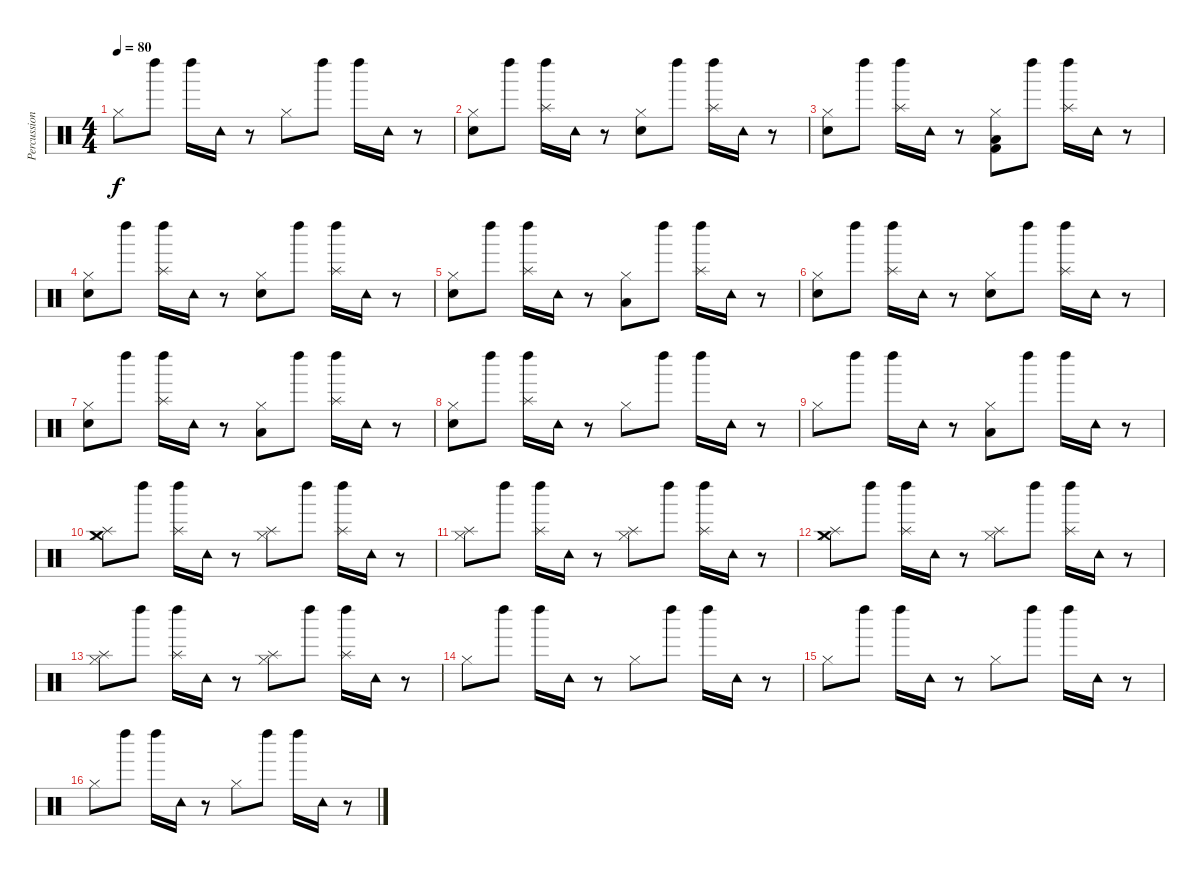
\track ("Percussion" "Percussion") {instrument percussion}
\staff {score}
\articulation defaults
\ts (4 4)
\tempo 80
\clef neutral
\ks c "Hi-Hat (closed)".8{dy f} "Left Maraca (hit)".8 "Left Maraca (hit)".16 "Tambourine (hit)".16
r.8 "Hi-Hat (closed)".8 "Left Maraca (hit)".8 "Left Maraca (hit)".16 "Tambourine (hit)".16 r.8 |
("Hi-Hat (closed)" "Hand Clap (hit)").8 "Left Maraca (hit)".8 ("Left Maraca (hit)" "Splash (hit)").16 "Tambourine (hit)".16 r.8 ("Hi-Hat (closed)" "Hand Clap (hit)").8 "Left Maraca (hit)".8 ("Left Maraca (hit)" "Splash (hit)").16 "Tambourine (hit)".16 r.8 |
("Hi-Hat (closed)" "Hand Clap (hit)").8 "Left Maraca (hit)".8 ("Left Maraca (hit)" "Splash (hit)").16 "Tambourine (hit)".16 r.8 ("Hi-Hat (closed)" "Low Tom (hit)" "Kick (hit) 2").8 "Left Maraca (hit)".8 ("Left Maraca (hit)" "Splash (hit)").16 "Tambourine (hit)".16 r.8 |
("Hi-Hat (closed)" "Hand Clap (hit)").8 "Left Maraca (hit)".8 ("Left Maraca (hit)" "Splash (hit)").16 "Tambourine (hit)".16 r.8 ("Hi-Hat (closed)" "Hand Clap (hit)").8 "Left Maraca (hit)".8 ("Left Maraca (hit)" "Splash (hit)").16 "Tambourine (hit)".16 r.8 |
("Hi-Hat (closed)" "Hand Clap (hit)").8 "Left Maraca (hit)".8 ("Left Maraca (hit)" "Splash (hit)").16 "Tambourine (hit)".16 r.8 ("Hi-Hat (closed)" "Low Tom (hit)").8 "Left Maraca (hit)".8 ("Left Maraca (hit)" "Splash (hit)").16 "Tambourine (hit)".16 r.8 |
("Hi-Hat (closed)" "Hand Clap (hit)").8 "Left Maraca (hit)".8 ("Left Maraca (hit)" "Splash (hit)").16 "Tambourine (hit)".16 r.8 ("Hi-Hat (closed)" "Hand Clap (hit)").8 "Left Maraca (hit)".8 ("Left Maraca (hit)" "Splash (hit)").16 "Tambourine (hit)".16 r.8 |
("Hi-Hat (closed)" "Hand Clap (hit)").8 "Left Maraca (hit)".8 ("Left Maraca (hit)" "Splash (hit)").16 "Tambourine (hit)".16 r.8 ("Hi-Hat (closed)" "Low Tom (hit)").8 "Left Maraca (hit)".8 ("Left Maraca (hit)" "Splash (hit)").16 "Tambourine (hit)".16 r.8 |
("Hi-Hat (closed)" "Hand Clap (hit)").8 "Left Maraca (hit)".8 ("Left Maraca (hit)" "Splash (hit)").16 "Tambourine (hit)".16 r.8 "Hi-Hat (closed)".8 "Left Maraca (hit)".8 "Left Maraca (hit)".16 "Tambourine (hit)".16 r.8 |
"Hi-Hat (closed)".8 "Left Maraca (hit)".8 "Left Maraca (hit)".16 "Tambourine (hit)".16 r.8 ("Hi-Hat (closed)" "Low Tom (hit)").8 "Left Maraca (hit)".8 "Left Maraca (hit)".16 "Tambourine (hit)".16 r.8 |
("Hi-Hat (closed)" "Splash (hit)" "Crash medium (hit)").8 "Left Maraca (hit)".8 ("Left Maraca (hit)" "Splash (hit)").16 "Tambourine (hit)".16 r.8 ("Hi-Hat (closed)" "Splash (hit)").8 "Left Maraca (hit)".8 ("Left Maraca (hit)" "Splash (hit)").16 "Tambourine (hit)".16 r.8 |
("Hi-Hat (closed)" "Splash (hit)").8 "Left Maraca (hit)".8 ("Left Maraca (hit)" "Splash (hit)").16 "Tambourine (hit)".16 r.8 ("Hi-Hat (closed)" "Splash (hit)").8 "Left Maraca (hit)".8 ("Left Maraca (hit)" "Splash (hit)").16 "Tambourine (hit)".16 r.8 |
("Hi-Hat (closed)" "Splash (hit)" "Crash medium (hit)").8 "Left Maraca (hit)".8 ("Left Maraca (hit)" "Splash (hit)").16 "Tambourine (hit)".16 r.8 ("Hi-Hat (closed)" "Splash (hit)").8 "Left Maraca (hit)".8 ("Left Maraca (hit)" "Splash (hit)").16 "Tambourine (hit)".16 r.8 |
("Hi-Hat (closed)" "Splash (hit)").8 "Left Maraca (hit)".8 ("Left Maraca (hit)" "Splash (hit)").16 "Tambourine (hit)".16 r.8 ("Hi-Hat (closed)" "Splash (hit)").8 "Left Maraca (hit)".8 ("Left Maraca (hit)" "Splash (hit)").16 "Tambourine (hit)".16 r.8 |
"Hi-Hat (closed)".8 "Left Maraca (hit)".8 "Left Maraca (hit)".16 "Tambourine (hit)".16 r.8 "Hi-Hat (closed)".8 "Left Maraca (hit)".8 "Left Maraca (hit)".16 "Tambourine (hit)".16 r.8 |
"Hi-Hat (closed)".8 "Left Maraca (hit)".8 "Left Maraca (hit)".16 "Tambourine (hit)".16 r.8 "Hi-Hat (closed)".8 "Left Maraca (hit)".8 "Left Maraca (hit)".16 "Tambourine (hit)".16 r.8 |
"Hi-Hat (closed)".8 "Left Maraca (hit)".8 "Left Maraca (hit)".16 "Tambourine (hit)".16 r.8 "Hi-Hat (closed)".8 "Left Maraca (hit)".8 "Left Maraca (hit)".16 "Tambourine (hit)".16 r.8
